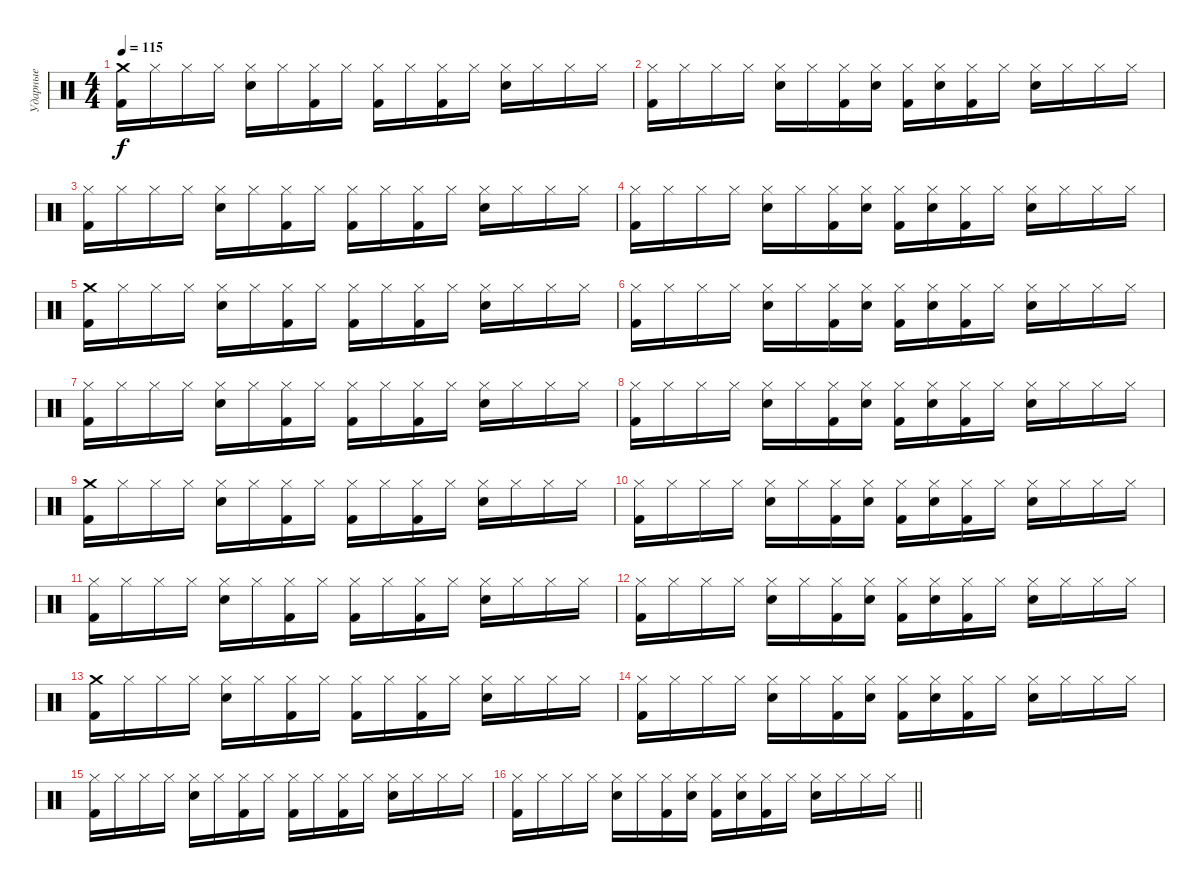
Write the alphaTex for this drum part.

\track ("Ударные" "Ударные") {instrument percussion}
\staff {score}
\articulation defaults
\ts (4 4)
\section ("" "")
\tempo 115
\clef neutral
\ks c
("Crash medium (hit)" "Kick (hit) 2").16{dy f} "Hi-Hat (closed)".16 "Hi-Hat (closed)".16 "Hi-Hat (closed)".16 ("Hi-Hat (closed)" "Snare (hit) 2").16 "Hi-Hat (closed)".16 ("Hi-Hat (closed)" "Kick (hit) 2").16 "Hi-Hat (closed)".16 ("Hi-Hat (closed)" "Kick (hit) 2").16 "Hi-Hat (closed)".16 ("Hi-Hat (closed)" "Kick (hit) 2").16 "Hi-Hat (closed)".16 ("Hi-Hat (closed)" "Snare (hit) 2").16 "Hi-Hat (closed)".16 "Hi-Hat (closed)".16 "Hi-Hat (closed)".16 |
("Hi-Hat (closed)" "Kick (hit) 2").16 "Hi-Hat (closed)".16 "Hi-Hat (closed)".16 "Hi-Hat (closed)".16 ("Hi-Hat (closed)" "Snare (hit) 2").16 "Hi-Hat (closed)".16 ("Hi-Hat (closed)" "Kick (hit) 2").16 ("Hi-Hat (closed)" "Snare (hit) 2").16 ("Hi-Hat (closed)" "Kick (hit) 2").16 ("Hi-Hat (closed)" "Snare (hit) 2").16 ("Hi-Hat (closed)" "Kick (hit) 2").16 "Hi-Hat (closed)".16 ("Hi-Hat (closed)" "Snare (hit) 2").16 "Hi-Hat (closed)".16 "Hi-Hat (closed)".16 "Hi-Hat (closed)".16 |
("Hi-Hat (closed)" "Kick (hit) 2").16 "Hi-Hat (closed)".16 "Hi-Hat (closed)".16 "Hi-Hat (closed)".16 ("Hi-Hat (closed)" "Snare (hit) 2").16 "Hi-Hat (closed)".16 ("Hi-Hat (closed)" "Kick (hit) 2").16 "Hi-Hat (closed)".16 ("Hi-Hat (closed)" "Kick (hit) 2").16 "Hi-Hat (closed)".16 ("Hi-Hat (closed)" "Kick (hit) 2").16 "Hi-Hat (closed)".16 ("Hi-Hat (closed)" "Snare (hit) 2").16 "Hi-Hat (closed)".16 "Hi-Hat (closed)".16 "Hi-Hat (closed)".16 |
("Hi-Hat (closed)" "Kick (hit) 2").16 "Hi-Hat (closed)".16 "Hi-Hat (closed)".16 "Hi-Hat (closed)".16 ("Hi-Hat (closed)" "Snare (hit) 2").16 "Hi-Hat (closed)".16 ("Hi-Hat (closed)" "Kick (hit) 2").16 ("Hi-Hat (closed)" "Snare (hit) 2").16 ("Hi-Hat (closed)" "Kick (hit) 2").16 ("Hi-Hat (closed)" "Snare (hit) 2").16 ("Hi-Hat (closed)" "Kick (hit) 2").16 "Hi-Hat (closed)".16 ("Hi-Hat (closed)" "Snare (hit) 2").16 "Hi-Hat (closed)".16 "Hi-Hat (closed)".16 "Hi-Hat (closed)".16 |
("Crash medium (hit)" "Kick (hit) 2").16 "Hi-Hat (closed)".16 "Hi-Hat (closed)".16 "Hi-Hat (closed)".16 ("Hi-Hat (closed)" "Snare (hit) 2").16 "Hi-Hat (closed)".16 ("Hi-Hat (closed)" "Kick (hit) 2").16 "Hi-Hat (closed)".16 ("Hi-Hat (closed)" "Kick (hit) 2").16 "Hi-Hat (closed)".16 ("Hi-Hat (closed)" "Kick (hit) 2").16 "Hi-Hat (closed)".16 ("Hi-Hat (closed)" "Snare (hit) 2").16 "Hi-Hat (closed)".16 "Hi-Hat (closed)".16 "Hi-Hat (closed)".16 |
("Hi-Hat (closed)" "Kick (hit) 2").16 "Hi-Hat (closed)".16 "Hi-Hat (closed)".16 "Hi-Hat (closed)".16 ("Hi-Hat (closed)" "Snare (hit) 2").16 "Hi-Hat (closed)".16 ("Hi-Hat (closed)" "Kick (hit) 2").16 ("Hi-Hat (closed)" "Snare (hit) 2").16 ("Hi-Hat (closed)" "Kick (hit) 2").16 ("Hi-Hat (closed)" "Snare (hit) 2").16 ("Hi-Hat (closed)" "Kick (hit) 2").16 "Hi-Hat (closed)".16 ("Hi-Hat (closed)" "Snare (hit) 2").16 "Hi-Hat (closed)".16 "Hi-Hat (closed)".16 "Hi-Hat (closed)".16 |
("Hi-Hat (closed)" "Kick (hit) 2").16 "Hi-Hat (closed)".16 "Hi-Hat (closed)".16 "Hi-Hat (closed)".16 ("Hi-Hat (closed)" "Snare (hit) 2").16 "Hi-Hat (closed)".16 ("Hi-Hat (closed)" "Kick (hit) 2").16 "Hi-Hat (closed)".16 ("Hi-Hat (closed)" "Kick (hit) 2").16 "Hi-Hat (closed)".16 ("Hi-Hat (closed)" "Kick (hit) 2").16 "Hi-Hat (closed)".16 ("Hi-Hat (closed)" "Snare (hit) 2").16 "Hi-Hat (closed)".16 "Hi-Hat (closed)".16 "Hi-Hat (closed)".16 |
("Hi-Hat (closed)" "Kick (hit) 2").16 "Hi-Hat (closed)".16 "Hi-Hat (closed)".16 "Hi-Hat (closed)".16 ("Hi-Hat (closed)" "Snare (hit) 2").16 "Hi-Hat (closed)".16 ("Hi-Hat (closed)" "Kick (hit) 2").16 ("Hi-Hat (closed)" "Snare (hit) 2").16 ("Hi-Hat (closed)" "Kick (hit) 2").16 ("Hi-Hat (closed)" "Snare (hit) 2").16 ("Hi-Hat (closed)" "Kick (hit) 2").16 "Hi-Hat (closed)".16 ("Hi-Hat (closed)" "Snare (hit) 2").16 "Hi-Hat (closed)".16 "Hi-Hat (closed)".16 "Hi-Hat (closed)".16 |
("Crash medium (hit)" "Kick (hit) 2").16 "Hi-Hat (closed)".16 "Hi-Hat (closed)".16 "Hi-Hat (closed)".16 ("Hi-Hat (closed)" "Snare (hit) 2").16 "Hi-Hat (closed)".16 ("Hi-Hat (closed)" "Kick (hit) 2").16 "Hi-Hat (closed)".16 ("Hi-Hat (closed)" "Kick (hit) 2").16 "Hi-Hat (closed)".16 ("Hi-Hat (closed)" "Kick (hit) 2").16 "Hi-Hat (closed)".16 ("Hi-Hat (closed)" "Snare (hit) 2").16 "Hi-Hat (closed)".16 "Hi-Hat (closed)".16 "Hi-Hat (closed)".16 |
("Hi-Hat (closed)" "Kick (hit) 2").16 "Hi-Hat (closed)".16 "Hi-Hat (closed)".16 "Hi-Hat (closed)".16 ("Hi-Hat (closed)" "Snare (hit) 2").16 "Hi-Hat (closed)".16 ("Hi-Hat (closed)" "Kick (hit) 2").16 ("Hi-Hat (closed)" "Snare (hit) 2").16 ("Hi-Hat (closed)" "Kick (hit) 2").16 ("Hi-Hat (closed)" "Snare (hit) 2").16 ("Hi-Hat (closed)" "Kick (hit) 2").16 "Hi-Hat (closed)".16 ("Hi-Hat (closed)" "Snare (hit) 2").16 "Hi-Hat (closed)".16 "Hi-Hat (closed)".16 "Hi-Hat (closed)".16 |
("Hi-Hat (closed)" "Kick (hit) 2").16 "Hi-Hat (closed)".16 "Hi-Hat (closed)".16 "Hi-Hat (closed)".16 ("Hi-Hat (closed)" "Snare (hit) 2").16 "Hi-Hat (closed)".16 ("Hi-Hat (closed)" "Kick (hit) 2").16 "Hi-Hat (closed)".16 ("Hi-Hat (closed)" "Kick (hit) 2").16 "Hi-Hat (closed)".16 ("Hi-Hat (closed)" "Kick (hit) 2").16 "Hi-Hat (closed)".16 ("Hi-Hat (closed)" "Snare (hit) 2").16 "Hi-Hat (closed)".16 "Hi-Hat (closed)".16 "Hi-Hat (closed)".16 |
("Hi-Hat (closed)" "Kick (hit) 2").16 "Hi-Hat (closed)".16 "Hi-Hat (closed)".16 "Hi-Hat (closed)".16 ("Hi-Hat (closed)" "Snare (hit) 2").16 "Hi-Hat (closed)".16 ("Hi-Hat (closed)" "Kick (hit) 2").16 ("Hi-Hat (closed)" "Snare (hit) 2").16 ("Hi-Hat (closed)" "Kick (hit) 2").16 ("Hi-Hat (closed)" "Snare (hit) 2").16 ("Hi-Hat (closed)" "Kick (hit) 2").16 "Hi-Hat (closed)".16 ("Hi-Hat (closed)" "Snare (hit) 2").16 "Hi-Hat (closed)".16 "Hi-Hat (closed)".16 "Hi-Hat (closed)".16 |
("Crash medium (hit)" "Kick (hit) 2").16 "Hi-Hat (closed)".16 "Hi-Hat (closed)".16 "Hi-Hat (closed)".16 ("Hi-Hat (closed)" "Snare (hit) 2").16 "Hi-Hat (closed)".16 ("Hi-Hat (closed)" "Kick (hit) 2").16 "Hi-Hat (closed)".16 ("Hi-Hat (closed)" "Kick (hit) 2").16 "Hi-Hat (closed)".16 ("Hi-Hat (closed)" "Kick (hit) 2").16 "Hi-Hat (closed)".16 ("Hi-Hat (closed)" "Snare (hit) 2").16 "Hi-Hat (closed)".16 "Hi-Hat (closed)".16 "Hi-Hat (closed)".16 |
("Hi-Hat (closed)" "Kick (hit) 2").16 "Hi-Hat (closed)".16 "Hi-Hat (closed)".16 "Hi-Hat (closed)".16 ("Hi-Hat (closed)" "Snare (hit) 2").16 "Hi-Hat (closed)".16 ("Hi-Hat (closed)" "Kick (hit) 2").16 ("Hi-Hat (closed)" "Snare (hit) 2").16 ("Hi-Hat (closed)" "Kick (hit) 2").16 ("Hi-Hat (closed)" "Snare (hit) 2").16 ("Hi-Hat (closed)" "Kick (hit) 2").16 "Hi-Hat (closed)".16 ("Hi-Hat (closed)" "Snare (hit) 2").16 "Hi-Hat (closed)".16 "Hi-Hat (closed)".16 "Hi-Hat (closed)".16 |
("Hi-Hat (closed)" "Kick (hit) 2").16 "Hi-Hat (closed)".16 "Hi-Hat (closed)".16 "Hi-Hat (closed)".16 ("Hi-Hat (closed)" "Snare (hit) 2").16 "Hi-Hat (closed)".16 ("Hi-Hat (closed)" "Kick (hit) 2").16 "Hi-Hat (closed)".16 ("Hi-Hat (closed)" "Kick (hit) 2").16 "Hi-Hat (closed)".16 ("Hi-Hat (closed)" "Kick (hit) 2").16 "Hi-Hat (closed)".16 ("Hi-Hat (closed)" "Snare (hit) 2").16 "Hi-Hat (closed)".16 "Hi-Hat (closed)".16 "Hi-Hat (closed)".16 |
\barLineRight lightlight
("Hi-Hat (closed)" "Kick (hit) 2").16 "Hi-Hat (closed)".16 "Hi-Hat (closed)".16 "Hi-Hat (closed)".16 ("Hi-Hat (closed)" "Snare (hit) 2").16 "Hi-Hat (closed)".16 ("Hi-Hat (closed)" "Kick (hit) 2").16 ("Hi-Hat (closed)" "Snare (hit) 2").16 ("Hi-Hat (closed)" "Kick (hit) 2").16 ("Hi-Hat (closed)" "Snare (hit) 2").16 ("Hi-Hat (closed)" "Kick (hit) 2").16 "Hi-Hat (closed)".16 ("Hi-Hat (closed)" "Snare (hit) 2").16 "Hi-Hat (closed)".16 "Hi-Hat (closed)".16 "Hi-Hat (closed)".16
